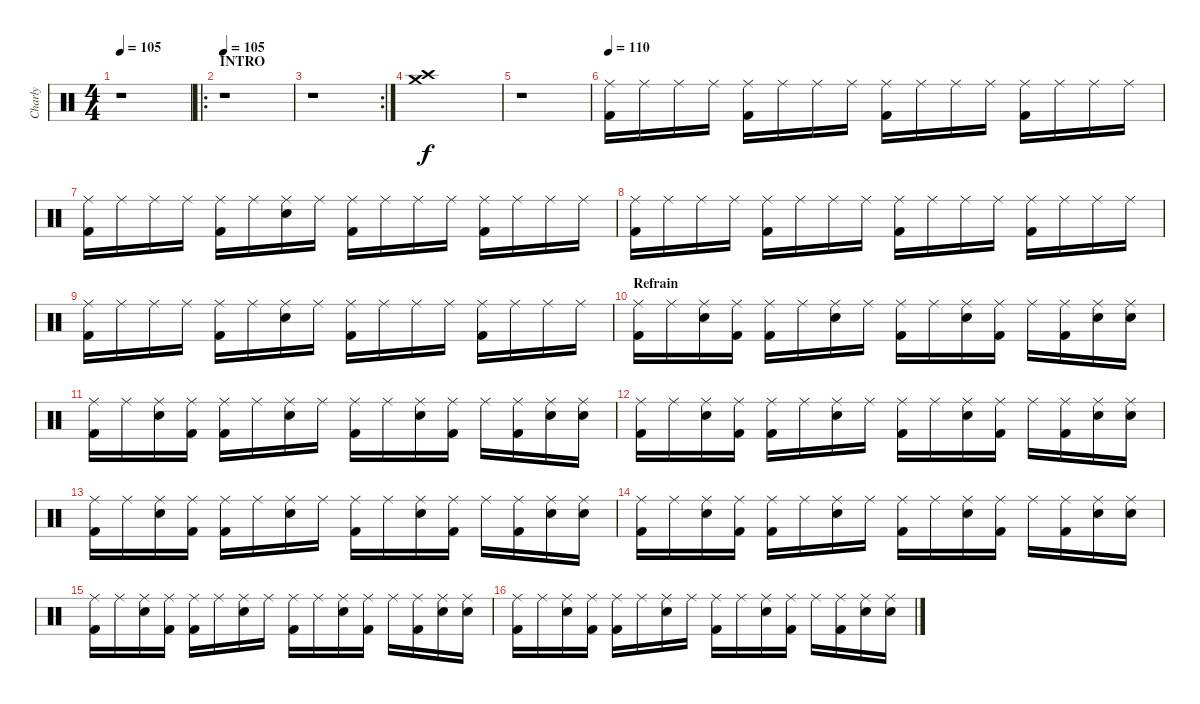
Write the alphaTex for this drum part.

\track ("Charly" "Charly") {instrument percussion}
\staff {score}
\articulation defaults
\ts (4 4)
\tempo 105
\clef neutral
\ks c
r.1{dy f} |
\ro
\section ("" "INTRO")
\tempo 105
r.1 |
\rc 2
r.1 |
("Crash high (hit)" "Crash medium (hit)").1 |
r.1 |
\tempo 110
("Ride (middle)" "Kick (hit) 2").16 "Ride (middle)".16 "Ride (middle)".16 "Ride (middle)".16 ("Ride (middle)" "Kick (hit) 2").16 "Ride (middle)".16 "Ride (middle)".16 "Ride (middle)".16 ("Ride (middle)" "Kick (hit) 2").16 "Ride (middle)".16 "Ride (middle)".16 "Ride (middle)".16 ("Ride (middle)" "Kick (hit) 2").16 "Ride (middle)".16 "Ride (middle)".16 "Ride (middle)".16 |
("Ride (middle)" "Kick (hit) 2").16 "Ride (middle)".16 "Ride (middle)".16 "Ride (middle)".16 ("Ride (middle)" "Kick (hit) 2").16 "Ride (middle)".16 ("Ride (middle)" "Electric Snare (hit)").16 "Ride (middle)".16 ("Ride (middle)" "Kick (hit) 2").16 "Ride (middle)".16 "Ride (middle)".16 "Ride (middle)".16 ("Ride (middle)" "Kick (hit) 2").16 "Ride (middle)".16 "Ride (middle)".16 "Ride (middle)".16 |
("Ride (middle)" "Kick (hit) 2").16 "Ride (middle)".16 "Ride (middle)".16 "Ride (middle)".16 ("Ride (middle)" "Kick (hit) 2").16 "Ride (middle)".16 "Ride (middle)".16 "Ride (middle)".16 ("Ride (middle)" "Kick (hit) 2").16 "Ride (middle)".16 "Ride (middle)".16 "Ride (middle)".16 ("Ride (middle)" "Kick (hit) 2").16 "Ride (middle)".16 "Ride (middle)".16 "Ride (middle)".16 |
("Ride (middle)" "Kick (hit) 2").16 "Ride (middle)".16 "Ride (middle)".16 "Ride (middle)".16 ("Ride (middle)" "Kick (hit) 2").16 "Ride (middle)".16 ("Ride (middle)" "Electric Snare (hit)").16 "Ride (middle)".16 ("Ride (middle)" "Kick (hit) 2").16 "Ride (middle)".16 "Ride (middle)".16 "Ride (middle)".16 ("Ride (middle)" "Kick (hit) 2").16 "Ride (middle)".16 "Ride (middle)".16 "Ride (middle)".16 |
\section ("" "Refrain")
("Ride (middle)" "Kick (hit) 2").16 "Ride (middle)".16 ("Ride (middle)" "Electric Snare (hit)").16 ("Ride (middle)" "Kick (hit) 2").16 ("Ride (middle)" "Kick (hit) 2").16 "Ride (middle)".16 ("Ride (middle)" "Electric Snare (hit)").16 "Ride (middle)".16 ("Ride (middle)" "Kick (hit) 2").16 "Ride (middle)".16 ("Ride (middle)" "Electric Snare (hit)").16 ("Ride (middle)" "Kick (hit) 2").16 "Ride (middle)".16 ("Ride (middle)" "Kick (hit) 2").16 ("Ride (middle)" "Electric Snare (hit)").16 ("Ride (middle)" "Electric Snare (hit)").16 |
("Ride (middle)" "Kick (hit) 2").16 "Ride (middle)".16 ("Ride (middle)" "Electric Snare (hit)").16 ("Ride (middle)" "Kick (hit) 2").16 ("Ride (middle)" "Kick (hit) 2").16 "Ride (middle)".16 ("Ride (middle)" "Electric Snare (hit)").16 "Ride (middle)".16 ("Ride (middle)" "Kick (hit) 2").16 "Ride (middle)".16 ("Ride (middle)" "Electric Snare (hit)").16 ("Ride (middle)" "Kick (hit) 2").16 "Ride (middle)".16 ("Ride (middle)" "Kick (hit) 2").16 ("Ride (middle)" "Electric Snare (hit)").16 ("Ride (middle)" "Electric Snare (hit)").16 |
("Ride (middle)" "Kick (hit) 2").16 "Ride (middle)".16 ("Ride (middle)" "Electric Snare (hit)").16 ("Ride (middle)" "Kick (hit) 2").16 ("Ride (middle)" "Kick (hit) 2").16 "Ride (middle)".16 ("Ride (middle)" "Electric Snare (hit)").16 "Ride (middle)".16 ("Ride (middle)" "Kick (hit) 2").16 "Ride (middle)".16 ("Ride (middle)" "Electric Snare (hit)").16 ("Ride (middle)" "Kick (hit) 2").16 "Ride (middle)".16 ("Ride (middle)" "Kick (hit) 2").16 ("Ride (middle)" "Electric Snare (hit)").16 ("Ride (middle)" "Electric Snare (hit)").16 |
("Ride (middle)" "Kick (hit) 2").16 "Ride (middle)".16 ("Ride (middle)" "Electric Snare (hit)").16 ("Ride (middle)" "Kick (hit) 2").16 ("Ride (middle)" "Kick (hit) 2").16 "Ride (middle)".16 ("Ride (middle)" "Electric Snare (hit)").16 "Ride (middle)".16 ("Ride (middle)" "Kick (hit) 2").16 "Ride (middle)".16 ("Ride (middle)" "Electric Snare (hit)").16 ("Ride (middle)" "Kick (hit) 2").16 "Ride (middle)".16 ("Ride (middle)" "Kick (hit) 2").16 ("Ride (middle)" "Electric Snare (hit)").16 ("Ride (middle)" "Electric Snare (hit)").16 |
("Ride (middle)" "Kick (hit) 2").16 "Ride (middle)".16 ("Ride (middle)" "Electric Snare (hit)").16 ("Ride (middle)" "Kick (hit) 2").16 ("Ride (middle)" "Kick (hit) 2").16 "Ride (middle)".16 ("Ride (middle)" "Electric Snare (hit)").16 "Ride (middle)".16 ("Ride (middle)" "Kick (hit) 2").16 "Ride (middle)".16 ("Ride (middle)" "Electric Snare (hit)").16 ("Ride (middle)" "Kick (hit) 2").16 "Ride (middle)".16 ("Ride (middle)" "Kick (hit) 2").16 ("Ride (middle)" "Electric Snare (hit)").16 ("Ride (middle)" "Electric Snare (hit)").16 |
("Ride (middle)" "Kick (hit) 2").16 "Ride (middle)".16 ("Ride (middle)" "Electric Snare (hit)").16 ("Ride (middle)" "Kick (hit) 2").16 ("Ride (middle)" "Kick (hit) 2").16 "Ride (middle)".16 ("Ride (middle)" "Electric Snare (hit)").16 "Ride (middle)".16 ("Ride (middle)" "Kick (hit) 2").16 "Ride (middle)".16 ("Ride (middle)" "Electric Snare (hit)").16 ("Ride (middle)" "Kick (hit) 2").16 "Ride (middle)".16 ("Ride (middle)" "Kick (hit) 2").16 ("Ride (middle)" "Electric Snare (hit)").16 ("Ride (middle)" "Electric Snare (hit)").16 |
("Ride (middle)" "Kick (hit) 2").16 "Ride (middle)".16 ("Ride (middle)" "Electric Snare (hit)").16 ("Ride (middle)" "Kick (hit) 2").16 ("Ride (middle)" "Kick (hit) 2").16 "Ride (middle)".16 ("Ride (middle)" "Electric Snare (hit)").16 "Ride (middle)".16 ("Ride (middle)" "Kick (hit) 2").16 "Ride (middle)".16 ("Ride (middle)" "Electric Snare (hit)").16 ("Ride (middle)" "Kick (hit) 2").16 "Ride (middle)".16 ("Ride (middle)" "Kick (hit) 2").16 ("Ride (middle)" "Electric Snare (hit)").16 ("Ride (middle)" "Electric Snare (hit)").16
